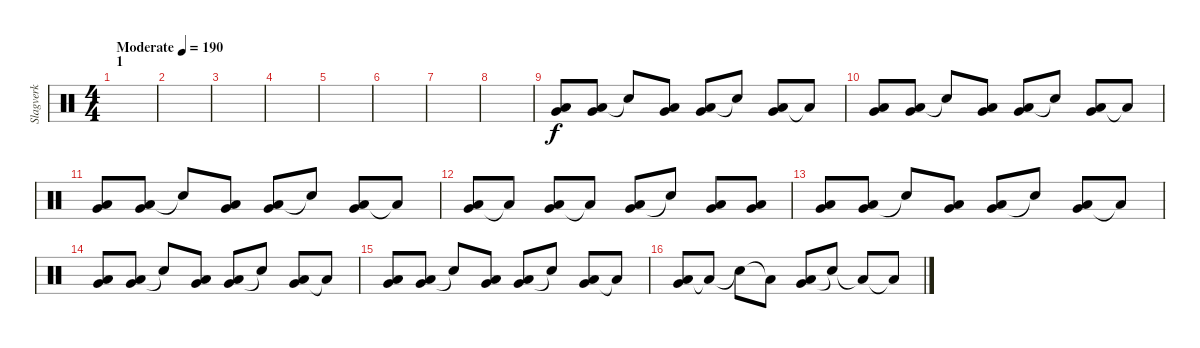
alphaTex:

\track ("Slagverk" "Slagverk") {instrument percussion}
\staff {score}
\articulation defaults
\ts (4 4)
\section ("" "1")
\tempo (190 "Moderate")
\clef neutral
\ks c
|
|
|
|
|
|
|
|
("Low Tom (hit)" "Very Low Tom (hit)").8{bu 60} ("Low Tom (hit)" "Very Low Tom (hit)").8{bu 60} "Snare (hit)"{t}.8 ("Low Tom (hit)" "Very Low Tom (hit)").8{bu 60} ("Low Tom (hit)" "Very Low Tom (hit)").8{bu 60} "Snare (hit)"{t}.8 ("Low Tom (hit)" "Very Low Tom (hit)").8{bu 60} "Low Floor Tom (hit)"{t}.8 |
("Low Tom (hit)" "Very Low Tom (hit)").8{bu 60} ("Low Tom (hit)" "Very Low Tom (hit)").8{bu 60} "Snare (hit)"{t}.8 ("Low Tom (hit)" "Very Low Tom (hit)").8{bu 60} ("Low Tom (hit)" "Very Low Tom (hit)").8{bu 60} "Snare (hit)"{t}.8 ("Low Tom (hit)" "Very Low Tom (hit)").8{bu 60} "Low Floor Tom (hit)"{t}.8 |
("Low Tom (hit)" "Very Low Tom (hit)").8{bu 60} ("Low Tom (hit)" "Very Low Tom (hit)").8{bu 60} "Snare (hit)"{t}.8 ("Low Tom (hit)" "Very Low Tom (hit)").8{bu 60} ("Low Tom (hit)" "Very Low Tom (hit)").8{bu 60} "Snare (hit)"{t}.8 ("Low Tom (hit)" "Very Low Tom (hit)").8{bu 60} "Low Floor Tom (hit)"{t}.8 |
("Very Low Tom (hit)" "Low Floor Tom (hit)").8{bu 60} "Low Floor Tom (hit)"{t}.8 ("Very Low Tom (hit)" "Low Floor Tom (hit)").8{bu 120} "Low Floor Tom (hit)"{t}.8 ("Very Low Tom (hit)" "Low Floor Tom (hit)").8{bu 60} "Snare (hit)"{t}.8 ("Very Low Tom (hit)" "Low Floor Tom (hit)").8{bu 60} ("Very Low Tom (hit)" "Low Floor Tom (hit)").8{bu 60} |
("Very Low Tom (hit)" "Low Floor Tom (hit)").8{bu 60} ("Very Low Tom (hit)" "Low Floor Tom (hit)").8{bu 60} "Snare (hit)"{t}.8 ("Very Low Tom (hit)" "Low Floor Tom (hit)").8{bu 60} ("Very Low Tom (hit)" "Low Floor Tom (hit)").8{bu 60} "Snare (hit)"{t}.8 ("Very Low Tom (hit)" "Low Floor Tom (hit)").8{bu 60} "Low Floor Tom (hit)"{t}.8 |
("Very Low Tom (hit)" "Low Floor Tom (hit)").8{bu 60} ("Very Low Tom (hit)" "Low Floor Tom (hit)").8{bu 60} "Snare (hit)"{t}.8 ("Very Low Tom (hit)" "Low Floor Tom (hit)").8{bu 60} ("Very Low Tom (hit)" "Low Floor Tom (hit)").8{bu 60} "Snare (hit)"{t}.8 ("Very Low Tom (hit)" "Low Floor Tom (hit)").8{bu 60} "Low Floor Tom (hit)"{t}.8 |
("Very Low Tom (hit)" "Low Floor Tom (hit)").8{bu 60} ("Very Low Tom (hit)" "Low Floor Tom (hit)").8{bu 60} "Snare (hit)"{t}.8 ("Very Low Tom (hit)" "Low Floor Tom (hit)").8{bu 60} ("Very Low Tom (hit)" "Low Floor Tom (hit)").8{bu 60} "Snare (hit)"{t}.8 ("Very Low Tom (hit)" "Low Floor Tom (hit)").8{bu 60} "Low Floor Tom (hit)"{t}.8 |
("Low Floor Tom (hit)" "Very Low Tom (hit)").8{bu 120} "Low Floor Tom (hit)"{t}.8 "Snare (hit)"{t}.8 "Low Floor Tom (hit)"{t}.8 ("Very Low Tom (hit)" "Low Tom (hit)").8{bu 240} "Snare (hit)"{t}.8 "Low Floor Tom (hit)"{t}.8 "Low Floor Tom (hit)"{t}.8
